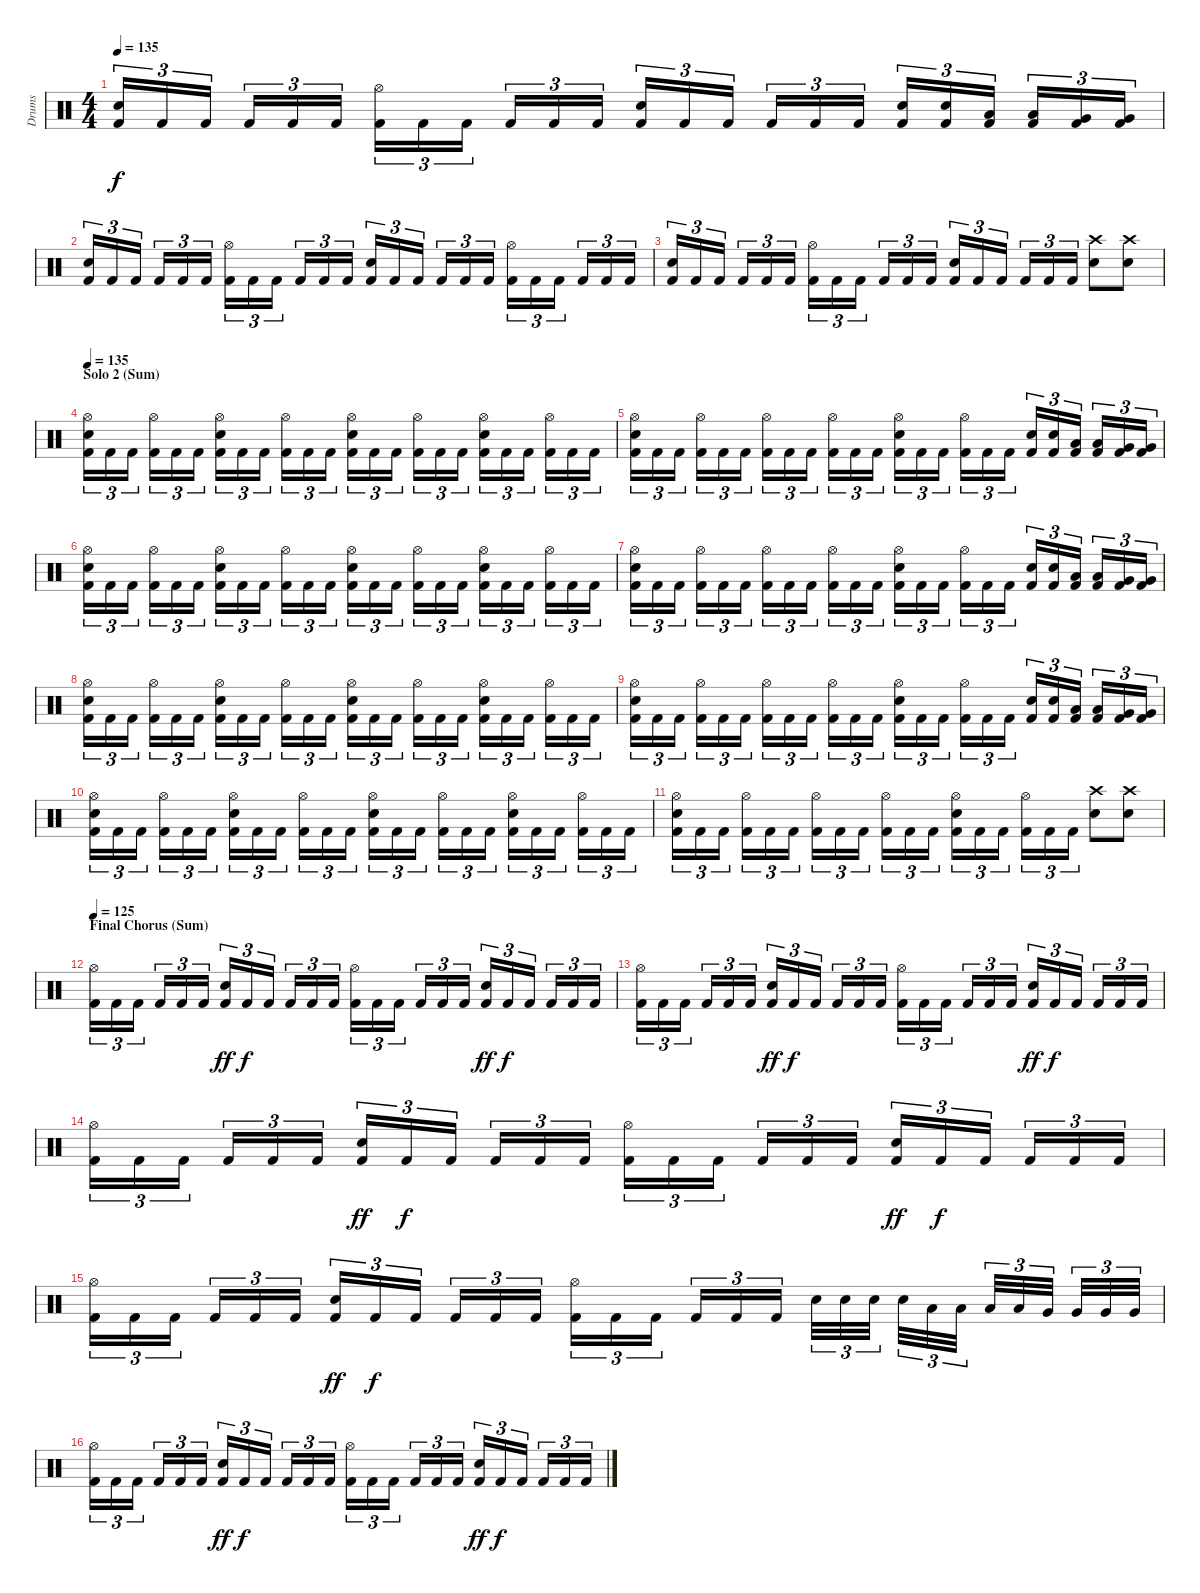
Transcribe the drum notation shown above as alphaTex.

\track ("Drums" "Drums") {instrument percussion}
\staff {score}
\articulation defaults
\ts (4 4)
\tempo 135
\clef neutral
\ks c
("Kick (hit) 2" "Electric Snare (hit)").16{tu (3 2) dy f} "Kick (hit) 2".16{tu (3 2)} "Kick (hit) 2".16{tu (3 2)} "Kick (hit) 2".16{tu (3 2)} "Kick (hit) 2".16{tu (3 2)} "Kick (hit) 2".16{tu (3 2)} ("Kick (hit) 2" "Hi-Hat (open)").16{tu (3 2)} "Kick (hit) 2".16{tu (3 2)} "Kick (hit) 2".16{tu (3 2)} "Kick (hit) 2".16{tu (3 2)} "Kick (hit) 2".16{tu (3 2)} "Kick (hit) 2".16{tu (3 2)} ("Kick (hit) 2" "Electric Snare (hit)").16{tu (3 2)} "Kick (hit) 2".16{tu (3 2)} "Kick (hit) 2".16{tu (3 2)} "Kick (hit) 2".16{tu (3 2)} "Kick (hit) 2".16{tu (3 2)} "Kick (hit) 2".16{tu (3 2)} ("Kick (hit) 2" "Electric Snare (hit)").16{tu (3 2)} ("Kick (hit) 2" "Electric Snare (hit)").16{tu (3 2)} ("Kick (hit) 2" "Low Tom (hit)").16{tu (3 2)} ("Kick (hit) 2" "Low Tom (hit)").16{tu (3 2)} ("Kick (hit) 2" "Very Low Tom (hit)").16{tu (3 2)} ("Kick (hit) 2" "Very Low Tom (hit)").16{tu (3 2)} |
("Kick (hit) 2" "Electric Snare (hit)").16{tu (3 2)} "Kick (hit) 2".16{tu (3 2)} "Kick (hit) 2".16{tu (3 2)} "Kick (hit) 2".16{tu (3 2)} "Kick (hit) 2".16{tu (3 2)} "Kick (hit) 2".16{tu (3 2)} ("Kick (hit) 2" "Hi-Hat (open)").16{tu (3 2)} "Kick (hit) 2".16{tu (3 2)} "Kick (hit) 2".16{tu (3 2)} "Kick (hit) 2".16{tu (3 2)} "Kick (hit) 2".16{tu (3 2)} "Kick (hit) 2".16{tu (3 2)} ("Kick (hit) 2" "Electric Snare (hit)").16{tu (3 2)} "Kick (hit) 2".16{tu (3 2)} "Kick (hit) 2".16{tu (3 2)} "Kick (hit) 2".16{tu (3 2)} "Kick (hit) 2".16{tu (3 2)} "Kick (hit) 2".16{tu (3 2)} ("Kick (hit) 2" "Hi-Hat (open)").16{tu (3 2)} "Kick (hit) 2".16{tu (3 2)} "Kick (hit) 2".16{tu (3 2)} "Kick (hit) 2".16{tu (3 2)} "Kick (hit) 2".16{tu (3 2)} "Kick (hit) 2".16{tu (3 2)} |
("Kick (hit) 2" "Electric Snare (hit)").16{tu (3 2)} "Kick (hit) 2".16{tu (3 2)} "Kick (hit) 2".16{tu (3 2)} "Kick (hit) 2".16{tu (3 2)} "Kick (hit) 2".16{tu (3 2)} "Kick (hit) 2".16{tu (3 2)} ("Kick (hit) 2" "Hi-Hat (open)").16{tu (3 2)} "Kick (hit) 2".16{tu (3 2)} "Kick (hit) 2".16{tu (3 2)} "Kick (hit) 2".16{tu (3 2)} "Kick (hit) 2".16{tu (3 2)} "Kick (hit) 2".16{tu (3 2)} ("Kick (hit) 2" "Electric Snare (hit)").16{tu (3 2)} "Kick (hit) 2".16{tu (3 2)} "Kick (hit) 2".16{tu (3 2)} "Kick (hit) 2".16{tu (3 2)} "Kick (hit) 2".16{tu (3 2)} "Kick (hit) 2".16{tu (3 2)} ("Crash high (hit)" "Electric Snare (hit)").8 ("Crash high (hit)" "Electric Snare (hit)").8 |
\section ("" "Solo 2 (Sum)")
\tempo 135
("Kick (hit) 2" "Hi-Hat (open)" "Electric Snare (hit)").16{tu (3 2)} "Kick (hit) 2".16{tu (3 2)} "Kick (hit) 2".16{tu (3 2)} ("Kick (hit) 2" "Hi-Hat (open)").16{tu (3 2)} "Kick (hit) 2".16{tu (3 2)} "Kick (hit) 2".16{tu (3 2)} ("Kick (hit) 2" "Electric Snare (hit)" "Hi-Hat (open)").16{tu (3 2)} "Kick (hit) 2".16{tu (3 2)} "Kick (hit) 2".16{tu (3 2)} ("Kick (hit) 2" "Hi-Hat (open)").16{tu (3 2)} "Kick (hit) 2".16{tu (3 2)} "Kick (hit) 2".16{tu (3 2)} ("Kick (hit) 2" "Hi-Hat (open)" "Electric Snare (hit)").16{tu (3 2)} "Kick (hit) 2".16{tu (3 2)} "Kick (hit) 2".16{tu (3 2)} ("Kick (hit) 2" "Hi-Hat (open)").16{tu (3 2)} "Kick (hit) 2".16{tu (3 2)} "Kick (hit) 2".16{tu (3 2)} ("Kick (hit) 2" "Electric Snare (hit)" "Hi-Hat (open)").16{tu (3 2)} "Kick (hit) 2".16{tu (3 2)} "Kick (hit) 2".16{tu (3 2)} ("Kick (hit) 2" "Hi-Hat (open)").16{tu (3 2)} "Kick (hit) 2".16{tu (3 2)} "Kick (hit) 2".16{tu (3 2)} |
("Kick (hit) 2" "Hi-Hat (open)" "Electric Snare (hit)").16{tu (3 2)} "Kick (hit) 2".16{tu (3 2)} "Kick (hit) 2".16{tu (3 2)} ("Kick (hit) 2" "Hi-Hat (open)").16{tu (3 2)} "Kick (hit) 2".16{tu (3 2)} "Kick (hit) 2".16{tu (3 2)} ("Kick (hit) 2" "Hi-Hat (open)").16{tu (3 2)} "Kick (hit) 2".16{tu (3 2)} "Kick (hit) 2".16{tu (3 2)} ("Kick (hit) 2" "Hi-Hat (open)").16{tu (3 2)} "Kick (hit) 2".16{tu (3 2)} "Kick (hit) 2".16{tu (3 2)} ("Kick (hit) 2" "Hi-Hat (open)" "Electric Snare (hit)").16{tu (3 2)} "Kick (hit) 2".16{tu (3 2)} "Kick (hit) 2".16{tu (3 2)} ("Kick (hit) 2" "Hi-Hat (open)").16{tu (3 2)} "Kick (hit) 2".16{tu (3 2)} "Kick (hit) 2".16{tu (3 2)} ("Kick (hit) 2" "Electric Snare (hit)").16{tu (3 2)} ("Kick (hit) 2" "Electric Snare (hit)").16{tu (3 2)} ("Kick (hit) 2" "Low Tom (hit)").16{tu (3 2)} ("Kick (hit) 2" "Low Tom (hit)").16{tu (3 2)} ("Kick (hit) 2" "Very Low Tom (hit)").16{tu (3 2)} ("Kick (hit) 2" "Very Low Tom (hit)").16{tu (3 2)} |
("Kick (hit) 2" "Hi-Hat (open)" "Electric Snare (hit)").16{tu (3 2)} "Kick (hit) 2".16{tu (3 2)} "Kick (hit) 2".16{tu (3 2)} ("Kick (hit) 2" "Hi-Hat (open)").16{tu (3 2)} "Kick (hit) 2".16{tu (3 2)} "Kick (hit) 2".16{tu (3 2)} ("Kick (hit) 2" "Electric Snare (hit)" "Hi-Hat (open)").16{tu (3 2)} "Kick (hit) 2".16{tu (3 2)} "Kick (hit) 2".16{tu (3 2)} ("Kick (hit) 2" "Hi-Hat (open)").16{tu (3 2)} "Kick (hit) 2".16{tu (3 2)} "Kick (hit) 2".16{tu (3 2)} ("Kick (hit) 2" "Hi-Hat (open)" "Electric Snare (hit)").16{tu (3 2)} "Kick (hit) 2".16{tu (3 2)} "Kick (hit) 2".16{tu (3 2)} ("Kick (hit) 2" "Hi-Hat (open)").16{tu (3 2)} "Kick (hit) 2".16{tu (3 2)} "Kick (hit) 2".16{tu (3 2)} ("Kick (hit) 2" "Electric Snare (hit)" "Hi-Hat (open)").16{tu (3 2)} "Kick (hit) 2".16{tu (3 2)} "Kick (hit) 2".16{tu (3 2)} ("Kick (hit) 2" "Hi-Hat (open)").16{tu (3 2)} "Kick (hit) 2".16{tu (3 2)} "Kick (hit) 2".16{tu (3 2)} |
("Kick (hit) 2" "Hi-Hat (open)" "Electric Snare (hit)").16{tu (3 2)} "Kick (hit) 2".16{tu (3 2)} "Kick (hit) 2".16{tu (3 2)} ("Kick (hit) 2" "Hi-Hat (open)").16{tu (3 2)} "Kick (hit) 2".16{tu (3 2)} "Kick (hit) 2".16{tu (3 2)} ("Kick (hit) 2" "Hi-Hat (open)").16{tu (3 2)} "Kick (hit) 2".16{tu (3 2)} "Kick (hit) 2".16{tu (3 2)} ("Kick (hit) 2" "Hi-Hat (open)").16{tu (3 2)} "Kick (hit) 2".16{tu (3 2)} "Kick (hit) 2".16{tu (3 2)} ("Kick (hit) 2" "Hi-Hat (open)" "Electric Snare (hit)").16{tu (3 2)} "Kick (hit) 2".16{tu (3 2)} "Kick (hit) 2".16{tu (3 2)} ("Kick (hit) 2" "Hi-Hat (open)").16{tu (3 2)} "Kick (hit) 2".16{tu (3 2)} "Kick (hit) 2".16{tu (3 2)} ("Kick (hit) 2" "Electric Snare (hit)").16{tu (3 2)} ("Kick (hit) 2" "Electric Snare (hit)").16{tu (3 2)} ("Kick (hit) 2" "Low Tom (hit)").16{tu (3 2)} ("Kick (hit) 2" "Low Tom (hit)").16{tu (3 2)} ("Kick (hit) 2" "Very Low Tom (hit)").16{tu (3 2)} ("Kick (hit) 2" "Very Low Tom (hit)").16{tu (3 2)} |
("Kick (hit) 2" "Hi-Hat (open)" "Electric Snare (hit)").16{tu (3 2)} "Kick (hit) 2".16{tu (3 2)} "Kick (hit) 2".16{tu (3 2)} ("Kick (hit) 2" "Hi-Hat (open)").16{tu (3 2)} "Kick (hit) 2".16{tu (3 2)} "Kick (hit) 2".16{tu (3 2)} ("Kick (hit) 2" "Electric Snare (hit)" "Hi-Hat (open)").16{tu (3 2)} "Kick (hit) 2".16{tu (3 2)} "Kick (hit) 2".16{tu (3 2)} ("Kick (hit) 2" "Hi-Hat (open)").16{tu (3 2)} "Kick (hit) 2".16{tu (3 2)} "Kick (hit) 2".16{tu (3 2)} ("Kick (hit) 2" "Hi-Hat (open)" "Electric Snare (hit)").16{tu (3 2)} "Kick (hit) 2".16{tu (3 2)} "Kick (hit) 2".16{tu (3 2)} ("Kick (hit) 2" "Hi-Hat (open)").16{tu (3 2)} "Kick (hit) 2".16{tu (3 2)} "Kick (hit) 2".16{tu (3 2)} ("Kick (hit) 2" "Electric Snare (hit)" "Hi-Hat (open)").16{tu (3 2)} "Kick (hit) 2".16{tu (3 2)} "Kick (hit) 2".16{tu (3 2)} ("Kick (hit) 2" "Hi-Hat (open)").16{tu (3 2)} "Kick (hit) 2".16{tu (3 2)} "Kick (hit) 2".16{tu (3 2)} |
("Kick (hit) 2" "Hi-Hat (open)" "Electric Snare (hit)").16{tu (3 2)} "Kick (hit) 2".16{tu (3 2)} "Kick (hit) 2".16{tu (3 2)} ("Kick (hit) 2" "Hi-Hat (open)").16{tu (3 2)} "Kick (hit) 2".16{tu (3 2)} "Kick (hit) 2".16{tu (3 2)} ("Kick (hit) 2" "Hi-Hat (open)").16{tu (3 2)} "Kick (hit) 2".16{tu (3 2)} "Kick (hit) 2".16{tu (3 2)} ("Kick (hit) 2" "Hi-Hat (open)").16{tu (3 2)} "Kick (hit) 2".16{tu (3 2)} "Kick (hit) 2".16{tu (3 2)} ("Kick (hit) 2" "Hi-Hat (open)" "Electric Snare (hit)").16{tu (3 2)} "Kick (hit) 2".16{tu (3 2)} "Kick (hit) 2".16{tu (3 2)} ("Kick (hit) 2" "Hi-Hat (open)").16{tu (3 2)} "Kick (hit) 2".16{tu (3 2)} "Kick (hit) 2".16{tu (3 2)} ("Kick (hit) 2" "Electric Snare (hit)").16{tu (3 2)} ("Kick (hit) 2" "Electric Snare (hit)").16{tu (3 2)} ("Kick (hit) 2" "Low Tom (hit)").16{tu (3 2)} ("Kick (hit) 2" "Low Tom (hit)").16{tu (3 2)} ("Kick (hit) 2" "Very Low Tom (hit)").16{tu (3 2)} ("Kick (hit) 2" "Very Low Tom (hit)").16{tu (3 2)} |
("Kick (hit) 2" "Hi-Hat (open)" "Electric Snare (hit)").16{tu (3 2)} "Kick (hit) 2".16{tu (3 2)} "Kick (hit) 2".16{tu (3 2)} ("Kick (hit) 2" "Hi-Hat (open)").16{tu (3 2)} "Kick (hit) 2".16{tu (3 2)} "Kick (hit) 2".16{tu (3 2)} ("Kick (hit) 2" "Electric Snare (hit)" "Hi-Hat (open)").16{tu (3 2)} "Kick (hit) 2".16{tu (3 2)} "Kick (hit) 2".16{tu (3 2)} ("Kick (hit) 2" "Hi-Hat (open)").16{tu (3 2)} "Kick (hit) 2".16{tu (3 2)} "Kick (hit) 2".16{tu (3 2)} ("Kick (hit) 2" "Hi-Hat (open)" "Electric Snare (hit)").16{tu (3 2)} "Kick (hit) 2".16{tu (3 2)} "Kick (hit) 2".16{tu (3 2)} ("Kick (hit) 2" "Hi-Hat (open)").16{tu (3 2)} "Kick (hit) 2".16{tu (3 2)} "Kick (hit) 2".16{tu (3 2)} ("Kick (hit) 2" "Electric Snare (hit)" "Hi-Hat (open)").16{tu (3 2)} "Kick (hit) 2".16{tu (3 2)} "Kick (hit) 2".16{tu (3 2)} ("Kick (hit) 2" "Hi-Hat (open)").16{tu (3 2)} "Kick (hit) 2".16{tu (3 2)} "Kick (hit) 2".16{tu (3 2)} |
("Kick (hit) 2" "Hi-Hat (open)" "Electric Snare (hit)").16{tu (3 2)} "Kick (hit) 2".16{tu (3 2)} "Kick (hit) 2".16{tu (3 2)} ("Kick (hit) 2" "Hi-Hat (open)").16{tu (3 2)} "Kick (hit) 2".16{tu (3 2)} "Kick (hit) 2".16{tu (3 2)} ("Kick (hit) 2" "Hi-Hat (open)").16{tu (3 2)} "Kick (hit) 2".16{tu (3 2)} "Kick (hit) 2".16{tu (3 2)} ("Kick (hit) 2" "Hi-Hat (open)").16{tu (3 2)} "Kick (hit) 2".16{tu (3 2)} "Kick (hit) 2".16{tu (3 2)} ("Kick (hit) 2" "Hi-Hat (open)" "Electric Snare (hit)").16{tu (3 2)} "Kick (hit) 2".16{tu (3 2)} "Kick (hit) 2".16{tu (3 2)} ("Kick (hit) 2" "Hi-Hat (open)").16{tu (3 2)} "Kick (hit) 2".16{tu (3 2)} "Kick (hit) 2".16{tu (3 2)} ("Crash high (hit)" "Electric Snare (hit)").8 ("Crash high (hit)" "Electric Snare (hit)").8 |
\section ("" "Final Chorus (Sum)")
\tempo 125
("Hi-Hat (open)" "Kick (hit) 2").16{tu (3 2)} "Kick (hit) 2".16{tu (3 2)} "Kick (hit) 2".16{tu (3 2)} "Kick (hit) 2".16{tu (3 2)} "Kick (hit) 2".16{tu (3 2)} "Kick (hit) 2".16{tu (3 2)} ("Electric Snare (hit)" "Kick (hit) 2").16{tu (3 2) dy ff} "Kick (hit) 2".16{tu (3 2) dy f} "Kick (hit) 2".16{tu (3 2)} "Kick (hit) 2".16{tu (3 2)} "Kick (hit) 2".16{tu (3 2)} "Kick (hit) 2".16{tu (3 2)} ("Hi-Hat (open)" "Kick (hit) 2").16{tu (3 2)} "Kick (hit) 2".16{tu (3 2)} "Kick (hit) 2".16{tu (3 2)} "Kick (hit) 2".16{tu (3 2)} "Kick (hit) 2".16{tu (3 2)} "Kick (hit) 2".16{tu (3 2)} ("Electric Snare (hit)" "Kick (hit) 2").16{tu (3 2) dy ff} "Kick (hit) 2".16{tu (3 2) dy f} "Kick (hit) 2".16{tu (3 2)} "Kick (hit) 2".16{tu (3 2)} "Kick (hit) 2".16{tu (3 2)} "Kick (hit) 2".16{tu (3 2)} |
("Hi-Hat (open)" "Kick (hit) 2").16{tu (3 2)} "Kick (hit) 2".16{tu (3 2)} "Kick (hit) 2".16{tu (3 2)} "Kick (hit) 2".16{tu (3 2)} "Kick (hit) 2".16{tu (3 2)} "Kick (hit) 2".16{tu (3 2)} ("Electric Snare (hit)" "Kick (hit) 2").16{tu (3 2) dy ff} "Kick (hit) 2".16{tu (3 2) dy f} "Kick (hit) 2".16{tu (3 2)} "Kick (hit) 2".16{tu (3 2)} "Kick (hit) 2".16{tu (3 2)} "Kick (hit) 2".16{tu (3 2)} ("Hi-Hat (open)" "Kick (hit) 2").16{tu (3 2)} "Kick (hit) 2".16{tu (3 2)} "Kick (hit) 2".16{tu (3 2)} "Kick (hit) 2".16{tu (3 2)} "Kick (hit) 2".16{tu (3 2)} "Kick (hit) 2".16{tu (3 2)} ("Electric Snare (hit)" "Kick (hit) 2").16{tu (3 2) dy ff} "Kick (hit) 2".16{tu (3 2) dy f} "Kick (hit) 2".16{tu (3 2)} "Kick (hit) 2".16{tu (3 2)} "Kick (hit) 2".16{tu (3 2)} "Kick (hit) 2".16{tu (3 2)} |
("Hi-Hat (open)" "Kick (hit) 2").16{tu (3 2)} "Kick (hit) 2".16{tu (3 2)} "Kick (hit) 2".16{tu (3 2)} "Kick (hit) 2".16{tu (3 2)} "Kick (hit) 2".16{tu (3 2)} "Kick (hit) 2".16{tu (3 2)} ("Electric Snare (hit)" "Kick (hit) 2").16{tu (3 2) dy ff} "Kick (hit) 2".16{tu (3 2) dy f} "Kick (hit) 2".16{tu (3 2)} "Kick (hit) 2".16{tu (3 2)} "Kick (hit) 2".16{tu (3 2)} "Kick (hit) 2".16{tu (3 2)} ("Hi-Hat (open)" "Kick (hit) 2").16{tu (3 2)} "Kick (hit) 2".16{tu (3 2)} "Kick (hit) 2".16{tu (3 2)} "Kick (hit) 2".16{tu (3 2)} "Kick (hit) 2".16{tu (3 2)} "Kick (hit) 2".16{tu (3 2)} ("Electric Snare (hit)" "Kick (hit) 2").16{tu (3 2) dy ff} "Kick (hit) 2".16{tu (3 2) dy f} "Kick (hit) 2".16{tu (3 2)} "Kick (hit) 2".16{tu (3 2)} "Kick (hit) 2".16{tu (3 2)} "Kick (hit) 2".16{tu (3 2)} |
("Hi-Hat (open)" "Kick (hit) 2").16{tu (3 2)} "Kick (hit) 2".16{tu (3 2)} "Kick (hit) 2".16{tu (3 2)} "Kick (hit) 2".16{tu (3 2)} "Kick (hit) 2".16{tu (3 2)} "Kick (hit) 2".16{tu (3 2)} ("Electric Snare (hit)" "Kick (hit) 2").16{tu (3 2) dy ff} "Kick (hit) 2".16{tu (3 2) dy f} "Kick (hit) 2".16{tu (3 2)} "Kick (hit) 2".16{tu (3 2)} "Kick (hit) 2".16{tu (3 2)} "Kick (hit) 2".16{tu (3 2)} ("Hi-Hat (open)" "Kick (hit) 2").16{tu (3 2)} "Kick (hit) 2".16{tu (3 2)} "Kick (hit) 2".16{tu (3 2)} "Kick (hit) 2".16{tu (3 2)} "Kick (hit) 2".16{tu (3 2)} "Kick (hit) 2".16{tu (3 2)} "Electric Snare (hit)".32{tu (3 2)} "Electric Snare (hit)".32{tu (3 2)} "Electric Snare (hit)".32{tu (3 2)} "Electric Snare (hit)".32{tu (3 2)} "Low Tom (hit)".32{tu (3 2)} "Low Tom (hit)".32{tu (3 2)} "Low Tom (hit)".32{tu (3 2)} "Low Tom (hit)".32{tu (3 2)} "Very Low Tom (hit)".32{tu (3 2)} "Very Low Tom (hit)".32{tu (3 2)} "Very Low Tom (hit)".32{tu (3 2)} "Very Low Tom (hit)".32{tu (3 2)} |
("Hi-Hat (open)" "Kick (hit) 2").16{tu (3 2)} "Kick (hit) 2".16{tu (3 2)} "Kick (hit) 2".16{tu (3 2)} "Kick (hit) 2".16{tu (3 2)} "Kick (hit) 2".16{tu (3 2)} "Kick (hit) 2".16{tu (3 2)} ("Electric Snare (hit)" "Kick (hit) 2").16{tu (3 2) dy ff} "Kick (hit) 2".16{tu (3 2) dy f} "Kick (hit) 2".16{tu (3 2)} "Kick (hit) 2".16{tu (3 2)} "Kick (hit) 2".16{tu (3 2)} "Kick (hit) 2".16{tu (3 2)} ("Hi-Hat (open)" "Kick (hit) 2").16{tu (3 2)} "Kick (hit) 2".16{tu (3 2)} "Kick (hit) 2".16{tu (3 2)} "Kick (hit) 2".16{tu (3 2)} "Kick (hit) 2".16{tu (3 2)} "Kick (hit) 2".16{tu (3 2)} ("Electric Snare (hit)" "Kick (hit) 2").16{tu (3 2) dy ff} "Kick (hit) 2".16{tu (3 2) dy f} "Kick (hit) 2".16{tu (3 2)} "Kick (hit) 2".16{tu (3 2)} "Kick (hit) 2".16{tu (3 2)} "Kick (hit) 2".16{tu (3 2)}
